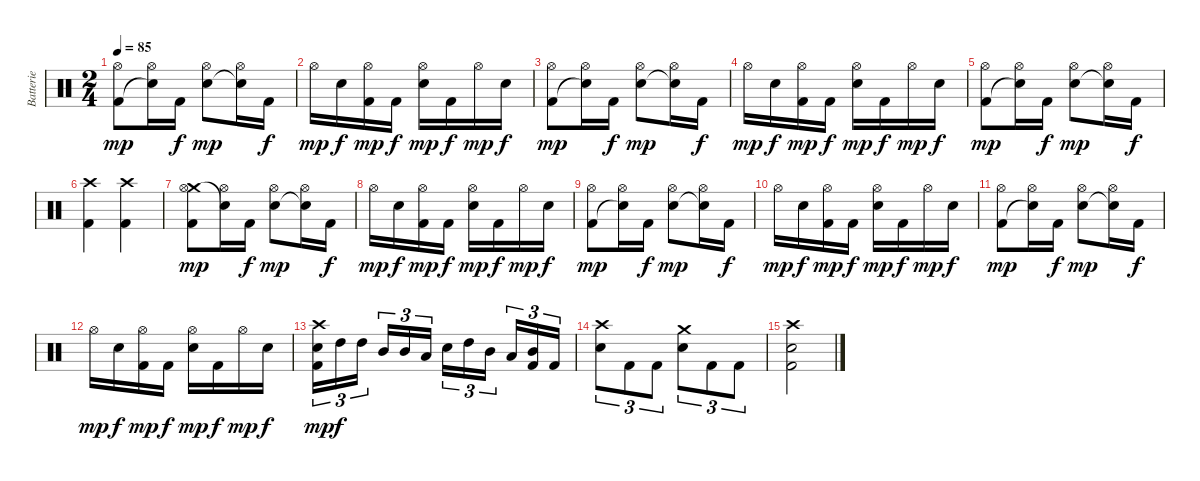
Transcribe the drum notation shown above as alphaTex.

\track ("Batterie" "Batterie") {instrument percussion}
\staff {score}
\articulation defaults
\ts (2 4)
\tempo 85
\clef neutral
\ks c
("Hi-Hat (open)" "Kick (hit) 2").8{dy mp} ("Hi-Hat (open)" "Snare (hit)"{t}).16 "Kick (hit) 2".16{dy f} ("Electric Snare (hit)" "Hi-Hat (open)").8{dy mp} ("Snare (hit)"{t} "Hi-Hat (open)").16 "Kick (hit) 2".16{dy f} |
"Hi-Hat (open)".16{dy mp} "Electric Snare (hit)".16{dy f} ("Hi-Hat (open)" "Kick (hit) 2").16{dy mp} "Kick (hit) 2".16{dy f} ("Electric Snare (hit)" "Hi-Hat (open)").16{dy mp} "Kick (hit) 2".16{dy f} "Hi-Hat (open)".16{dy mp} "Electric Snare (hit)".16{dy f} |
("Hi-Hat (open)" "Kick (hit) 2").8{dy mp} ("Hi-Hat (open)" "Snare (hit)"{t}).16 "Kick (hit) 2".16{dy f} ("Electric Snare (hit)" "Hi-Hat (open)").8{dy mp} ("Snare (hit)"{t} "Hi-Hat (open)").16 "Kick (hit) 2".16{dy f} |
"Hi-Hat (open)".16{dy mp} "Electric Snare (hit)".16{dy f} ("Hi-Hat (open)" "Kick (hit) 2").16{dy mp} "Kick (hit) 2".16{dy f} ("Electric Snare (hit)" "Hi-Hat (open)").16{dy mp} "Kick (hit) 2".16{dy f} "Hi-Hat (open)".16{dy mp} "Electric Snare (hit)".16{dy f} |
("Hi-Hat (open)" "Kick (hit) 2").8{dy mp} ("Hi-Hat (open)" "Snare (hit)"{t}).16 "Kick (hit) 2".16{dy f} ("Electric Snare (hit)" "Hi-Hat (open)").8{dy mp} ("Snare (hit)"{t} "Hi-Hat (open)").16 "Kick (hit) 2".16{dy f} |
("Crash high (hit)" "Kick (hit) 2").4 ("Crash high (hit)" "Kick (hit) 2").4 |
("Crash medium (hit)" "Hi-Hat (open)" "Kick (hit) 2").8{dy mp} ("Hi-Hat (open)" "Snare (hit)"{t}).16 "Kick (hit) 2".16{dy f} ("Electric Snare (hit)" "Hi-Hat (open)").8{dy mp} ("Snare (hit)"{t} "Hi-Hat (open)").16 "Kick (hit) 2".16{dy f} |
"Hi-Hat (open)".16{dy mp} "Electric Snare (hit)".16{dy f} ("Hi-Hat (open)" "Kick (hit) 2").16{dy mp} "Kick (hit) 2".16{dy f} ("Electric Snare (hit)" "Hi-Hat (open)").16{dy mp} "Kick (hit) 2".16{dy f} "Hi-Hat (open)".16{dy mp} "Electric Snare (hit)".16{dy f} |
("Hi-Hat (open)" "Kick (hit) 2").8{dy mp} ("Hi-Hat (open)" "Snare (hit)"{t}).16 "Kick (hit) 2".16{dy f} ("Electric Snare (hit)" "Hi-Hat (open)").8{dy mp} ("Snare (hit)"{t} "Hi-Hat (open)").16 "Kick (hit) 2".16{dy f} |
"Hi-Hat (open)".16{dy mp} "Electric Snare (hit)".16{dy f} ("Hi-Hat (open)" "Kick (hit) 2").16{dy mp} "Kick (hit) 2".16{dy f} ("Electric Snare (hit)" "Hi-Hat (open)").16{dy mp} "Kick (hit) 2".16{dy f} "Hi-Hat (open)".16{dy mp} "Electric Snare (hit)".16{dy f} |
("Hi-Hat (open)" "Kick (hit) 2").8{dy mp} ("Hi-Hat (open)" "Snare (hit)"{t}).16 "Kick (hit) 2".16{dy f} ("Electric Snare (hit)" "Hi-Hat (open)").8{dy mp} ("Snare (hit)"{t} "Hi-Hat (open)").16 "Kick (hit) 2".16{dy f} |
"Hi-Hat (open)".16{dy mp} "Electric Snare (hit)".16{dy f} ("Hi-Hat (open)" "Kick (hit) 2").16{dy mp} "Kick (hit) 2".16{dy f} ("Electric Snare (hit)" "Hi-Hat (open)").16{dy mp} "Kick (hit) 2".16{dy f} "Hi-Hat (open)".16{dy mp} "Electric Snare (hit)".16{dy f} |
("Crash high (hit)" "Electric Snare (hit)" "Kick (hit) 2").16{tu (3 2) dy mp} "High Tom (hit)".16{tu (3 2) dy f} "High Tom (hit)".16{tu (3 2)} "Mid Tom (hit)".16{tu (3 2)} "Mid Tom (hit)".16{tu (3 2)} "Low Tom (hit)".16{tu (3 2)} "Electric Snare (hit)".16{tu (3 2)} "High Tom (hit)".16{tu (3 2)} "Mid Tom (hit)".16{tu (3 2)} "Low Tom (hit)".16{tu (3 2)} ("Mid Tom (hit)" "Kick (hit) 2").16{tu (3 2)} "Kick (hit) 2".16{tu (3 2)} |
("Crash high (hit)" "Electric Snare (hit)").8{tu (3 2)} "Kick (hit) 2".8{tu (3 2)} "Kick (hit) 2".8{tu (3 2)} ("Crash medium (hit)" "Electric Snare (hit)").8{tu (3 2)} "Kick (hit) 2".8{tu (3 2)} "Kick (hit) 2".8{tu (3 2)} |
("Crash high (hit)" "Electric Snare (hit)" "Kick (hit) 2").2
